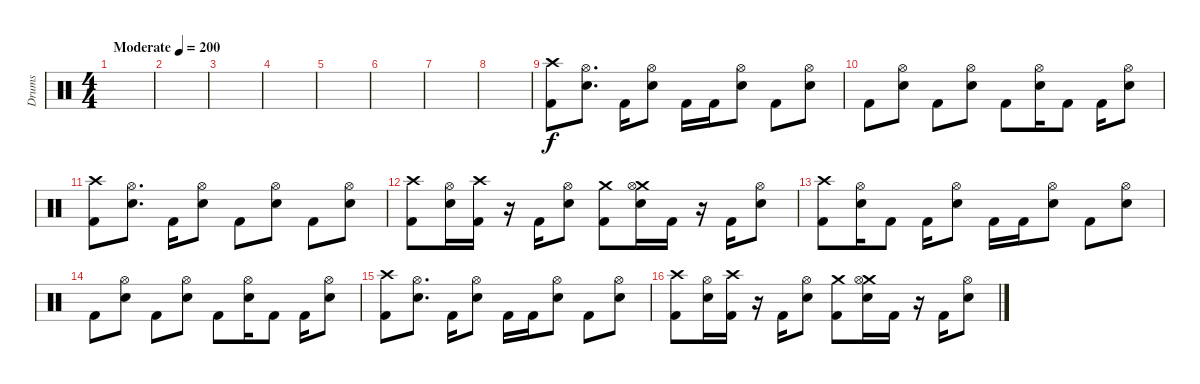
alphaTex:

\track ("Drums" "Drums") {instrument percussion}
\staff {score}
\articulation defaults
\ts (4 4)
\tempo (200 "Moderate")
\clef neutral
\ks c
|
|
|
|
|
|
|
|
("Crash high (hit)" "Kick (hit) 2").8 ("Hi-Hat (open)" "Electric Snare (hit)").8{d} "Kick (hit) 2".16 ("Hi-Hat (open)" "Electric Snare (hit)").8 "Kick (hit) 2".16 "Kick (hit) 2".16 ("Hi-Hat (open)" "Electric Snare (hit)").8 "Kick (hit) 2".8 ("Hi-Hat (open)" "Electric Snare (hit)").8 |
"Kick (hit) 2".8 ("Hi-Hat (open)" "Electric Snare (hit)").8 "Kick (hit) 2".8 ("Hi-Hat (open)" "Electric Snare (hit)").8 "Kick (hit) 2".8 ("Hi-Hat (open)" "Electric Snare (hit)").16 "Kick (hit) 2".8 "Kick (hit) 2".16 ("Hi-Hat (open)" "Electric Snare (hit)").8 |
("Crash high (hit)" "Kick (hit) 2").8 ("Hi-Hat (open)" "Electric Snare (hit)").8{d} "Kick (hit) 2".16 ("Hi-Hat (open)" "Electric Snare (hit)").8 "Kick (hit) 2".8 ("Hi-Hat (open)" "Electric Snare (hit)").8 "Kick (hit) 2".8 ("Hi-Hat (open)" "Electric Snare (hit)").8 |
("Crash high (hit)" "Kick (hit) 2").8 ("Hi-Hat (open)" "Electric Snare (hit)").16 ("Crash high (hit)" "Kick (hit) 2").16 r.16 "Kick (hit) 2".16 ("Hi-Hat (open)" "Electric Snare (hit)").8 ("Crash medium (hit)" "Kick (hit) 2").8 ("Crash medium (hit)" "Hi-Hat (open)" "Electric Snare (hit)").16 "Kick (hit) 2".16 r.16 "Kick (hit) 2".16 ("Hi-Hat (open)" "Electric Snare (hit)").8 |
("Crash high (hit)" "Kick (hit) 2").8 ("Hi-Hat (open)" "Electric Snare (hit)").16 "Kick (hit) 2".8 "Kick (hit) 2".16 ("Hi-Hat (open)" "Electric Snare (hit)").8 "Kick (hit) 2".16 "Kick (hit) 2".16 ("Hi-Hat (open)" "Electric Snare (hit)").8 "Kick (hit) 2".8 ("Hi-Hat (open)" "Electric Snare (hit)").8 |
"Kick (hit) 2".8 ("Hi-Hat (open)" "Electric Snare (hit)").8 "Kick (hit) 2".8 ("Hi-Hat (open)" "Electric Snare (hit)").8 "Kick (hit) 2".8 ("Hi-Hat (open)" "Electric Snare (hit)").16 "Kick (hit) 2".8 "Kick (hit) 2".16 ("Hi-Hat (open)" "Electric Snare (hit)").8 |
("Crash high (hit)" "Kick (hit) 2").8 ("Hi-Hat (open)" "Electric Snare (hit)").8{d} "Kick (hit) 2".16 ("Hi-Hat (open)" "Electric Snare (hit)").8 "Kick (hit) 2".16 "Kick (hit) 2".16 ("Hi-Hat (open)" "Electric Snare (hit)").8 "Kick (hit) 2".8 ("Hi-Hat (open)" "Electric Snare (hit)").8 |
("Crash high (hit)" "Kick (hit) 2").8 ("Hi-Hat (open)" "Electric Snare (hit)").16 ("Crash high (hit)" "Kick (hit) 2").16 r.16 "Kick (hit) 2".16 ("Hi-Hat (open)" "Electric Snare (hit)").8 ("Crash medium (hit)" "Kick (hit) 2").8 ("Crash medium (hit)" "Hi-Hat (open)" "Electric Snare (hit)").16 "Kick (hit) 2".16 r.16 "Kick (hit) 2".16 ("Hi-Hat (open)" "Electric Snare (hit)").8
